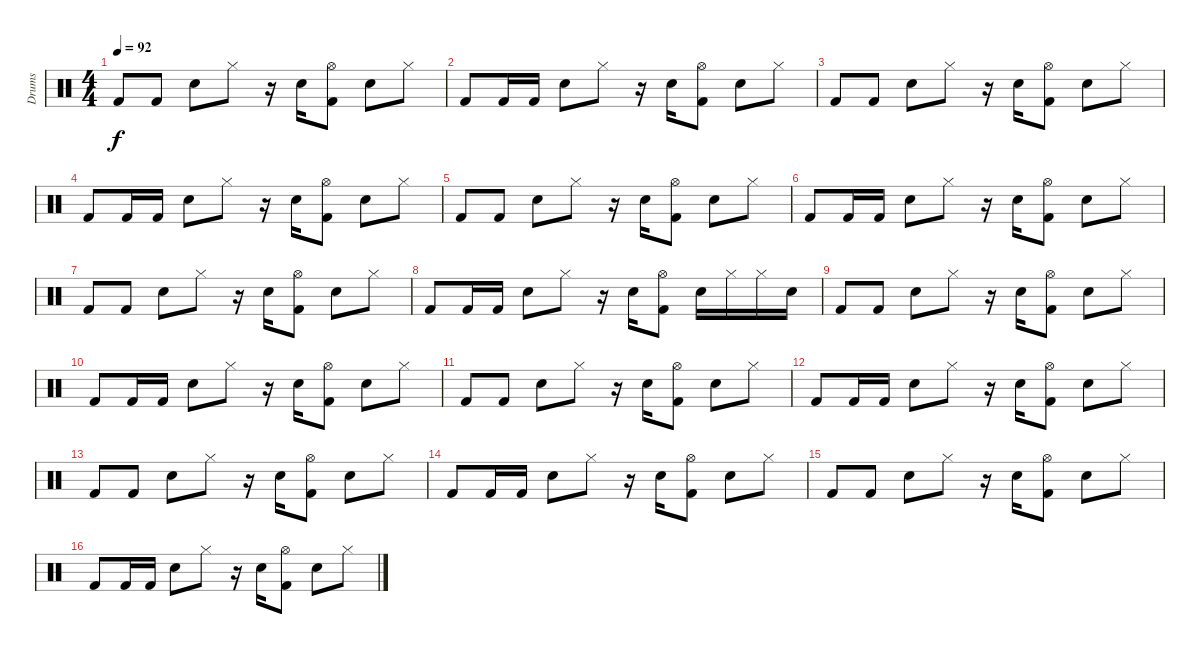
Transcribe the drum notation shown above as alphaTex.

\track ("Drums" "Drums") {instrument percussion}
\staff {score}
\articulation defaults
\ts (4 4)
\tempo 92
\clef neutral
\ks c "Kick (hit) 2".8{dy f} "Kick (hit) 2".8 "Snare (hit) 2".8 "Hi-Hat (closed)".8
r.16 "Snare (hit) 2".16 ("Hi-Hat (open)" "Kick (hit) 2").8 "Snare (hit) 2".8 "Hi-Hat (closed)".8 |
"Kick (hit) 2".8 "Kick (hit) 2".16 "Kick (hit) 2".16 "Snare (hit) 2".8 "Hi-Hat (closed)".8 r.16 "Snare (hit) 2".16 ("Hi-Hat (open)" "Kick (hit) 2").8 "Snare (hit) 2".8 "Hi-Hat (closed)".8 |
"Kick (hit) 2".8 "Kick (hit) 2".8 "Snare (hit) 2".8 "Hi-Hat (closed)".8 r.16 "Snare (hit) 2".16 ("Hi-Hat (open)" "Kick (hit) 2").8 "Snare (hit) 2".8 "Hi-Hat (closed)".8 |
"Kick (hit) 2".8 "Kick (hit) 2".16 "Kick (hit) 2".16 "Snare (hit) 2".8 "Hi-Hat (closed)".8 r.16 "Snare (hit) 2".16 ("Hi-Hat (open)" "Kick (hit) 2").8 "Snare (hit) 2".8 "Hi-Hat (closed)".8 |
"Kick (hit) 2".8 "Kick (hit) 2".8 "Snare (hit) 2".8 "Hi-Hat (closed)".8 r.16 "Snare (hit) 2".16 ("Hi-Hat (open)" "Kick (hit) 2").8 "Snare (hit) 2".8 "Hi-Hat (closed)".8 |
"Kick (hit) 2".8 "Kick (hit) 2".16 "Kick (hit) 2".16 "Snare (hit) 2".8 "Hi-Hat (closed)".8 r.16 "Snare (hit) 2".16 ("Hi-Hat (open)" "Kick (hit) 2").8 "Snare (hit) 2".8 "Hi-Hat (closed)".8 |
"Kick (hit) 2".8 "Kick (hit) 2".8 "Snare (hit) 2".8 "Hi-Hat (closed)".8 r.16 "Snare (hit) 2".16 ("Hi-Hat (open)" "Kick (hit) 2").8 "Snare (hit) 2".8 "Hi-Hat (closed)".8 |
"Kick (hit) 2".8 "Kick (hit) 2".16 "Kick (hit) 2".16 "Snare (hit) 2".8 "Hi-Hat (closed)".8 r.16 "Snare (hit) 2".16 ("Hi-Hat (open)" "Kick (hit) 2").8 "Snare (hit) 2".16 "Hi-Hat (closed)".16 "Hi-Hat (closed)".16 "Snare (hit) 2".16 |
"Kick (hit) 2".8 "Kick (hit) 2".8 "Snare (hit) 2".8 "Hi-Hat (closed)".8 r.16 "Snare (hit) 2".16 ("Hi-Hat (open)" "Kick (hit) 2").8 "Snare (hit) 2".8 "Hi-Hat (closed)".8 |
"Kick (hit) 2".8 "Kick (hit) 2".16 "Kick (hit) 2".16 "Snare (hit) 2".8 "Hi-Hat (closed)".8 r.16 "Snare (hit) 2".16 ("Hi-Hat (open)" "Kick (hit) 2").8 "Snare (hit) 2".8 "Hi-Hat (closed)".8 |
"Kick (hit) 2".8 "Kick (hit) 2".8 "Snare (hit) 2".8 "Hi-Hat (closed)".8 r.16 "Snare (hit) 2".16 ("Hi-Hat (open)" "Kick (hit) 2").8 "Snare (hit) 2".8 "Hi-Hat (closed)".8 |
"Kick (hit) 2".8 "Kick (hit) 2".16 "Kick (hit) 2".16 "Snare (hit) 2".8 "Hi-Hat (closed)".8 r.16 "Snare (hit) 2".16 ("Hi-Hat (open)" "Kick (hit) 2").8 "Snare (hit) 2".8 "Hi-Hat (closed)".8 |
"Kick (hit) 2".8 "Kick (hit) 2".8 "Snare (hit) 2".8 "Hi-Hat (closed)".8 r.16 "Snare (hit) 2".16 ("Hi-Hat (open)" "Kick (hit) 2").8 "Snare (hit) 2".8 "Hi-Hat (closed)".8 |
"Kick (hit) 2".8 "Kick (hit) 2".16 "Kick (hit) 2".16 "Snare (hit) 2".8 "Hi-Hat (closed)".8 r.16 "Snare (hit) 2".16 ("Hi-Hat (open)" "Kick (hit) 2").8 "Snare (hit) 2".8 "Hi-Hat (closed)".8 |
"Kick (hit) 2".8 "Kick (hit) 2".8 "Snare (hit) 2".8 "Hi-Hat (closed)".8 r.16 "Snare (hit) 2".16 ("Hi-Hat (open)" "Kick (hit) 2").8 "Snare (hit) 2".8 "Hi-Hat (closed)".8 |
"Kick (hit) 2".8 "Kick (hit) 2".16 "Kick (hit) 2".16 "Snare (hit) 2".8 "Hi-Hat (closed)".8 r.16 "Snare (hit) 2".16 ("Hi-Hat (open)" "Kick (hit) 2").8 "Snare (hit) 2".8 "Hi-Hat (closed)".8
